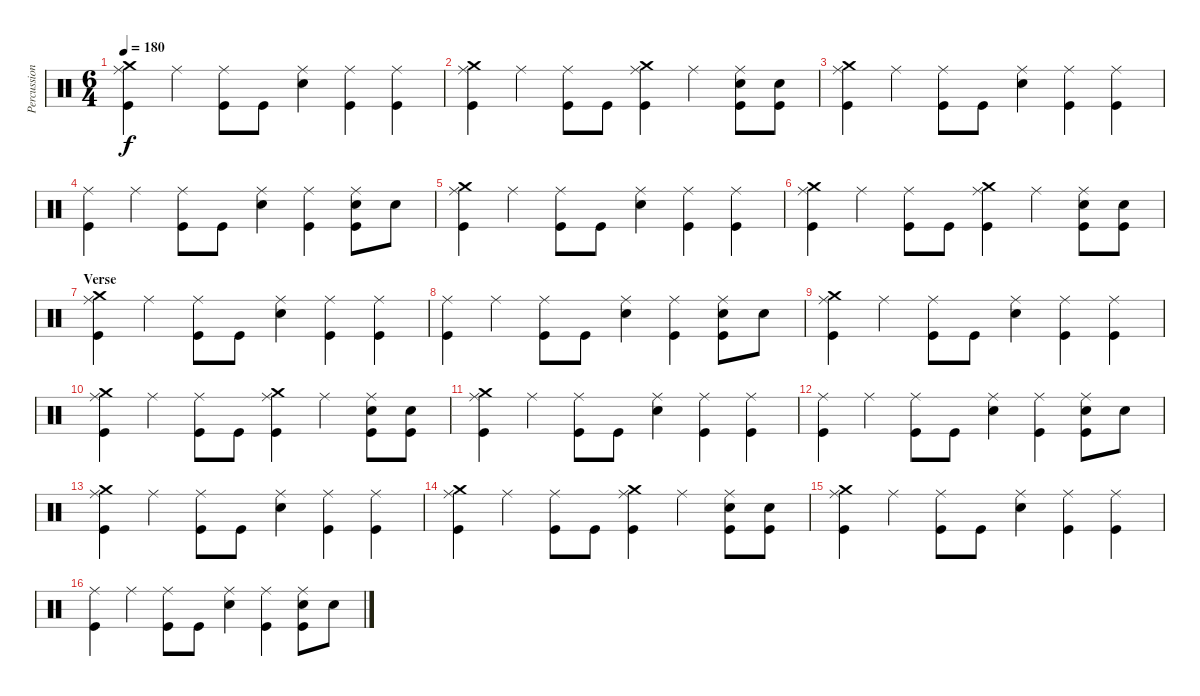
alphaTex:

\track ("Percussion" "Percussion") {instrument percussion}
\staff {score}
\articulation defaults
\ts (6 4)
\tempo 180
\clef neutral
\ks c
("Ride (middle)" "Crash medium (hit)" "Kick (hit)").4{dy f} "Ride (middle)".4 ("Ride (middle)" "Kick (hit)").8 "Kick (hit)".8 ("Ride (middle)" "Electric Snare (hit)").4 ("Ride (middle)" "Kick (hit)").4 ("Ride (middle)" "Kick (hit)").4 |
("Ride (middle)" "Crash medium (hit)" "Kick (hit)").4 "Ride (middle)".4 ("Ride (middle)" "Kick (hit)").8 "Kick (hit)".8 ("Ride (middle)" "Crash medium (hit)" "Kick (hit)").4 "Ride (middle)".4 ("Ride (middle)" "Electric Snare (hit)" "Kick (hit)").8 ("Electric Snare (hit)" "Kick (hit)").8 |
("Ride (middle)" "Crash medium (hit)" "Kick (hit)").4 "Ride (middle)".4 ("Ride (middle)" "Kick (hit)").8 "Kick (hit)".8 ("Ride (middle)" "Electric Snare (hit)").4 ("Ride (middle)" "Kick (hit)").4 ("Ride (middle)" "Kick (hit)").4 |
("Ride (middle)" "Kick (hit)").4 "Ride (middle)".4 ("Ride (middle)" "Kick (hit)").8 "Kick (hit)".8 ("Ride (middle)" "Electric Snare (hit)").4 ("Ride (middle)" "Kick (hit)").4 ("Ride (middle)" "Electric Snare (hit)" "Kick (hit)").8 "Electric Snare (hit)".8 |
("Ride (middle)" "Crash medium (hit)" "Kick (hit)").4 "Ride (middle)".4 ("Ride (middle)" "Kick (hit)").8 "Kick (hit)".8 ("Ride (middle)" "Electric Snare (hit)").4 ("Ride (middle)" "Kick (hit)").4 ("Ride (middle)" "Kick (hit)").4 |
("Ride (middle)" "Crash medium (hit)" "Kick (hit)").4 "Ride (middle)".4 ("Ride (middle)" "Kick (hit)").8 "Kick (hit)".8 ("Ride (middle)" "Crash medium (hit)" "Kick (hit)").4 "Ride (middle)".4 ("Ride (middle)" "Electric Snare (hit)" "Kick (hit)").8 ("Electric Snare (hit)" "Kick (hit)").8 |
\section ("" "Verse")
("Ride (middle)" "Crash medium (hit)" "Kick (hit)").4 "Ride (middle)".4 ("Ride (middle)" "Kick (hit)").8 "Kick (hit)".8 ("Ride (middle)" "Electric Snare (hit)").4 ("Ride (middle)" "Kick (hit)").4 ("Ride (middle)" "Kick (hit)").4 |
("Ride (middle)" "Kick (hit)").4 "Ride (middle)".4 ("Ride (middle)" "Kick (hit)").8 "Kick (hit)".8 ("Ride (middle)" "Electric Snare (hit)").4 ("Ride (middle)" "Kick (hit)").4 ("Ride (middle)" "Electric Snare (hit)" "Kick (hit)").8 "Electric Snare (hit)".8 |
("Ride (middle)" "Crash medium (hit)" "Kick (hit)").4 "Ride (middle)".4 ("Ride (middle)" "Kick (hit)").8 "Kick (hit)".8 ("Ride (middle)" "Electric Snare (hit)").4 ("Ride (middle)" "Kick (hit)").4 ("Ride (middle)" "Kick (hit)").4 |
("Ride (middle)" "Crash medium (hit)" "Kick (hit)").4 "Ride (middle)".4 ("Ride (middle)" "Kick (hit)").8 "Kick (hit)".8 ("Ride (middle)" "Crash medium (hit)" "Kick (hit)").4 "Ride (middle)".4 ("Ride (middle)" "Electric Snare (hit)" "Kick (hit)").8 ("Electric Snare (hit)" "Kick (hit)").8 |
("Ride (middle)" "Crash medium (hit)" "Kick (hit)").4 "Ride (middle)".4 ("Ride (middle)" "Kick (hit)").8 "Kick (hit)".8 ("Ride (middle)" "Electric Snare (hit)").4 ("Ride (middle)" "Kick (hit)").4 ("Ride (middle)" "Kick (hit)").4 |
("Ride (middle)" "Kick (hit)").4 "Ride (middle)".4 ("Ride (middle)" "Kick (hit)").8 "Kick (hit)".8 ("Ride (middle)" "Electric Snare (hit)").4 ("Ride (middle)" "Kick (hit)").4 ("Ride (middle)" "Electric Snare (hit)" "Kick (hit)").8 "Electric Snare (hit)".8 |
("Ride (middle)" "Crash medium (hit)" "Kick (hit)").4 "Ride (middle)".4 ("Ride (middle)" "Kick (hit)").8 "Kick (hit)".8 ("Ride (middle)" "Electric Snare (hit)").4 ("Ride (middle)" "Kick (hit)").4 ("Ride (middle)" "Kick (hit)").4 |
("Ride (middle)" "Crash medium (hit)" "Kick (hit)").4 "Ride (middle)".4 ("Ride (middle)" "Kick (hit)").8 "Kick (hit)".8 ("Ride (middle)" "Crash medium (hit)" "Kick (hit)").4 "Ride (middle)".4 ("Ride (middle)" "Electric Snare (hit)" "Kick (hit)").8 ("Electric Snare (hit)" "Kick (hit)").8 |
("Ride (middle)" "Crash medium (hit)" "Kick (hit)").4 "Ride (middle)".4 ("Ride (middle)" "Kick (hit)").8 "Kick (hit)".8 ("Ride (middle)" "Electric Snare (hit)").4 ("Ride (middle)" "Kick (hit)").4 ("Ride (middle)" "Kick (hit)").4 |
("Ride (middle)" "Kick (hit)").4 "Ride (middle)".4 ("Ride (middle)" "Kick (hit)").8 "Kick (hit)".8 ("Ride (middle)" "Electric Snare (hit)").4 ("Ride (middle)" "Kick (hit)").4 ("Ride (middle)" "Electric Snare (hit)" "Kick (hit)").8 "Electric Snare (hit)".8
